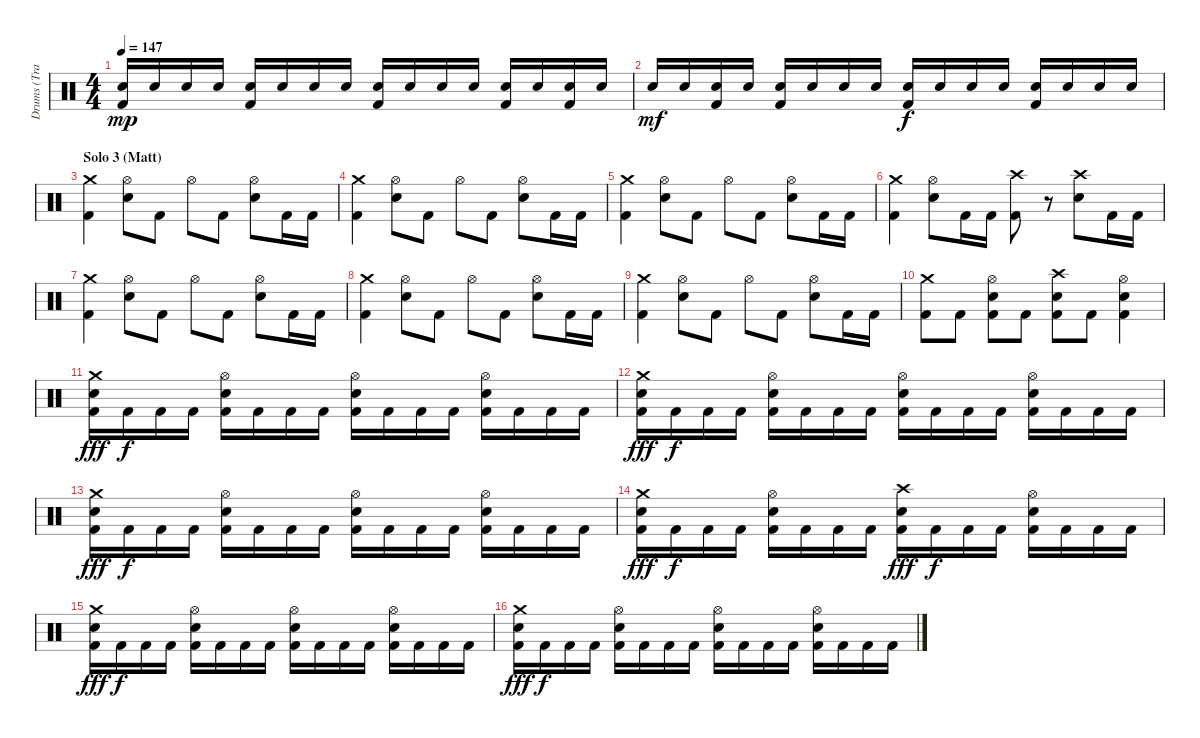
\track ("Drums (Travis)" "Drums (Tra") {instrument percussion}
\staff {score}
\articulation defaults
\ts (4 4)
\tempo 147
\clef neutral
\ks c
("Snare (hit) 2" "Kick (hit) 2").16{dy mp} "Snare (hit) 2".16 "Snare (hit) 2".16 "Snare (hit) 2".16 ("Snare (hit) 2" "Kick (hit) 2").16 "Snare (hit) 2".16 "Snare (hit) 2".16 "Snare (hit) 2".16 ("Snare (hit) 2" "Kick (hit) 2").16 "Snare (hit) 2".16 "Snare (hit) 2".16 "Snare (hit) 2".16 ("Snare (hit) 2" "Kick (hit) 2").16 "Snare (hit) 2".16 ("Snare (hit) 2" "Kick (hit) 2").16 "Snare (hit) 2".16 |
"Snare (hit) 2".16{dy mf} "Snare (hit) 2".16 ("Snare (hit) 2" "Kick (hit) 2").16 "Snare (hit) 2".16 ("Snare (hit) 2" "Kick (hit) 2").16 "Snare (hit) 2".16 "Snare (hit) 2".16 "Snare (hit) 2".16 ("Snare (hit) 2" "Kick (hit) 2").16{dy f} "Snare (hit) 2".16 "Snare (hit) 2".16 "Snare (hit) 2".16 ("Snare (hit) 2" "Kick (hit) 2").16 "Snare (hit) 2".16 "Snare (hit) 2".16 "Snare (hit) 2".16 |
\section ("" "Solo 3 (Matt)")
("Crash medium (hit)" "Kick (hit) 2").4 ("Hi-Hat (open)" "Snare (hit) 2").8 "Kick (hit) 2".8 "Hi-Hat (open)".8 "Kick (hit) 2".8 ("Hi-Hat (open)" "Snare (hit) 2").8 "Kick (hit) 2".16 "Kick (hit) 2".16 |
("Crash medium (hit)" "Kick (hit) 2").4 ("Hi-Hat (open)" "Snare (hit) 2").8 "Kick (hit) 2".8 "Hi-Hat (open)".8 "Kick (hit) 2".8 ("Hi-Hat (open)" "Snare (hit) 2").8 "Kick (hit) 2".16 "Kick (hit) 2".16 |
("Crash medium (hit)" "Kick (hit) 2").4 ("Hi-Hat (open)" "Snare (hit) 2").8 "Kick (hit) 2".8 "Hi-Hat (open)".8 "Kick (hit) 2".8 ("Hi-Hat (open)" "Snare (hit) 2").8 "Kick (hit) 2".16 "Kick (hit) 2".16 |
("Crash medium (hit)" "Kick (hit) 2").4 ("Hi-Hat (open)" "Snare (hit) 2").8 "Kick (hit) 2".16 "Kick (hit) 2".16 ("Crash high (hit)" "Kick (hit) 2").8 r.8 ("Crash high (hit)" "Snare (hit) 2").8 "Kick (hit) 2".16 "Kick (hit) 2".16 |
("Crash medium (hit)" "Kick (hit) 2").4 ("Hi-Hat (open)" "Snare (hit) 2").8 "Kick (hit) 2".8 "Hi-Hat (open)".8 "Kick (hit) 2".8 ("Hi-Hat (open)" "Snare (hit) 2").8 "Kick (hit) 2".16 "Kick (hit) 2".16 |
("Crash medium (hit)" "Kick (hit) 2").4 ("Hi-Hat (open)" "Snare (hit) 2").8 "Kick (hit) 2".8 "Hi-Hat (open)".8 "Kick (hit) 2".8 ("Hi-Hat (open)" "Snare (hit) 2").8 "Kick (hit) 2".16 "Kick (hit) 2".16 |
("Crash medium (hit)" "Kick (hit) 2").4 ("Hi-Hat (open)" "Snare (hit) 2").8 "Kick (hit) 2".8 "Hi-Hat (open)".8 "Kick (hit) 2".8 ("Hi-Hat (open)" "Snare (hit) 2").8 "Kick (hit) 2".16 "Kick (hit) 2".16 |
("Crash medium (hit)" "Kick (hit) 2").8 "Kick (hit) 2".8 ("Hi-Hat (open)" "Snare (hit) 2" "Kick (hit) 2").8 "Kick (hit) 2".8 ("Crash high (hit)" "Snare (hit) 2" "Kick (hit) 2").8 "Kick (hit) 2".8 ("Hi-Hat (open)" "Snare (hit) 2" "Kick (hit) 2").4 |
("Crash medium (hit)" "Snare (hit) 2" "Kick (hit) 2").16{dy fff} "Kick (hit) 2".16{dy f} "Kick (hit) 2".16 "Kick (hit) 2".16 ("Hi-Hat (open)" "Snare (hit) 2" "Kick (hit) 2").16 "Kick (hit) 2".16 "Kick (hit) 2".16 "Kick (hit) 2".16 ("Hi-Hat (open)" "Snare (hit) 2" "Kick (hit) 2").16 "Kick (hit) 2".16 "Kick (hit) 2".16 "Kick (hit) 2".16 ("Hi-Hat (open)" "Snare (hit) 2" "Kick (hit) 2").16 "Kick (hit) 2".16 "Kick (hit) 2".16 "Kick (hit) 2".16 |
("Crash medium (hit)" "Snare (hit) 2" "Kick (hit) 2").16{dy fff} "Kick (hit) 2".16{dy f} "Kick (hit) 2".16 "Kick (hit) 2".16 ("Hi-Hat (open)" "Snare (hit) 2" "Kick (hit) 2").16 "Kick (hit) 2".16 "Kick (hit) 2".16 "Kick (hit) 2".16 ("Hi-Hat (open)" "Snare (hit) 2" "Kick (hit) 2").16 "Kick (hit) 2".16 "Kick (hit) 2".16 "Kick (hit) 2".16 ("Hi-Hat (open)" "Snare (hit) 2" "Kick (hit) 2").16 "Kick (hit) 2".16 "Kick (hit) 2".16 "Kick (hit) 2".16 |
("Crash medium (hit)" "Snare (hit) 2" "Kick (hit) 2").16{dy fff} "Kick (hit) 2".16{dy f} "Kick (hit) 2".16 "Kick (hit) 2".16 ("Hi-Hat (open)" "Snare (hit) 2" "Kick (hit) 2").16 "Kick (hit) 2".16 "Kick (hit) 2".16 "Kick (hit) 2".16 ("Hi-Hat (open)" "Snare (hit) 2" "Kick (hit) 2").16 "Kick (hit) 2".16 "Kick (hit) 2".16 "Kick (hit) 2".16 ("Hi-Hat (open)" "Snare (hit) 2" "Kick (hit) 2").16 "Kick (hit) 2".16 "Kick (hit) 2".16 "Kick (hit) 2".16 |
("Crash medium (hit)" "Snare (hit) 2" "Kick (hit) 2").16{dy fff} "Kick (hit) 2".16{dy f} "Kick (hit) 2".16 "Kick (hit) 2".16 ("Hi-Hat (open)" "Snare (hit) 2" "Kick (hit) 2").16 "Kick (hit) 2".16 "Kick (hit) 2".16 "Kick (hit) 2".16 ("Crash high (hit)" "Snare (hit) 2" "Kick (hit) 2").16{dy fff} "Kick (hit) 2".16{dy f} "Kick (hit) 2".16 "Kick (hit) 2".16 ("Hi-Hat (open)" "Snare (hit) 2" "Kick (hit) 2").16 "Kick (hit) 2".16 "Kick (hit) 2".16 "Kick (hit) 2".16 |
("Crash medium (hit)" "Snare (hit) 2" "Kick (hit) 2").16{dy fff} "Kick (hit) 2".16{dy f} "Kick (hit) 2".16 "Kick (hit) 2".16 ("Hi-Hat (open)" "Snare (hit) 2" "Kick (hit) 2").16 "Kick (hit) 2".16 "Kick (hit) 2".16 "Kick (hit) 2".16 ("Hi-Hat (open)" "Snare (hit) 2" "Kick (hit) 2").16 "Kick (hit) 2".16 "Kick (hit) 2".16 "Kick (hit) 2".16 ("Hi-Hat (open)" "Snare (hit) 2" "Kick (hit) 2").16 "Kick (hit) 2".16 "Kick (hit) 2".16 "Kick (hit) 2".16 |
("Crash medium (hit)" "Snare (hit) 2" "Kick (hit) 2").16{dy fff} "Kick (hit) 2".16{dy f} "Kick (hit) 2".16 "Kick (hit) 2".16 ("Hi-Hat (open)" "Snare (hit) 2" "Kick (hit) 2").16 "Kick (hit) 2".16 "Kick (hit) 2".16 "Kick (hit) 2".16 ("Hi-Hat (open)" "Snare (hit) 2" "Kick (hit) 2").16 "Kick (hit) 2".16 "Kick (hit) 2".16 "Kick (hit) 2".16 ("Hi-Hat (open)" "Snare (hit) 2" "Kick (hit) 2").16 "Kick (hit) 2".16 "Kick (hit) 2".16 "Kick (hit) 2".16
